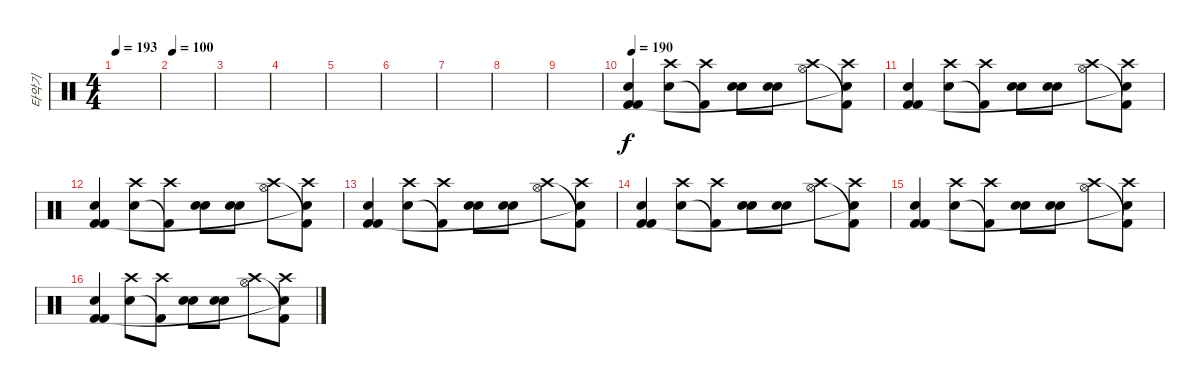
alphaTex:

\track ("타악기" "타악기") {instrument percussion}
\staff {score}
\articulation defaults
\ts (4 4)
\tempo 193
\clef neutral
\ks c
|
\tempo 100
|
|
|
|
|
|
|
|
\tempo 190
("Kick (hit) 2" "Snare (hit) 2" "Kick (hit) 2").4{volume 12} ("Crash high (hit)" "Snare (hit) 2").8 ("Crash high (hit)" "Kick (hit) 2"{t}).8 ("Snare (hit) 2" "Electric Snare (hit)").8 ("Snare (hit) 2" "Snare (hit) 2").8 ("Crash high (hit)" "Hi-Hat (open)").8 ("Crash high (hit)" "Kick (hit) 2"{t} "Snare (hit)"{t}).8 |
("Kick (hit) 2" "Snare (hit) 2" "Kick (hit) 2").4 ("Crash high (hit)" "Snare (hit) 2").8 ("Crash high (hit)" "Kick (hit) 2"{t}).8 ("Snare (hit) 2" "Electric Snare (hit)").8 ("Snare (hit) 2" "Snare (hit) 2").8 ("Crash high (hit)" "Hi-Hat (open)").8 ("Crash high (hit)" "Kick (hit) 2"{t} "Snare (hit)"{t}).8 |
("Kick (hit) 2" "Snare (hit) 2" "Kick (hit) 2").4 ("Crash high (hit)" "Snare (hit) 2").8 ("Crash high (hit)" "Kick (hit) 2"{t}).8 ("Snare (hit) 2" "Electric Snare (hit)").8 ("Snare (hit) 2" "Snare (hit) 2").8 ("Crash high (hit)" "Hi-Hat (open)").8 ("Crash high (hit)" "Kick (hit) 2"{t} "Snare (hit)"{t}).8 |
("Kick (hit) 2" "Snare (hit) 2" "Kick (hit) 2").4 ("Crash high (hit)" "Snare (hit) 2").8 ("Crash high (hit)" "Kick (hit) 2"{t}).8 ("Snare (hit) 2" "Electric Snare (hit)").8 ("Snare (hit) 2" "Snare (hit) 2").8 ("Crash high (hit)" "Hi-Hat (open)").8 ("Crash high (hit)" "Kick (hit) 2"{t} "Snare (hit)"{t}).8 |
("Kick (hit) 2" "Snare (hit) 2" "Kick (hit) 2").4 ("Crash high (hit)" "Snare (hit) 2").8 ("Crash high (hit)" "Kick (hit) 2"{t}).8 ("Snare (hit) 2" "Electric Snare (hit)").8 ("Snare (hit) 2" "Snare (hit) 2").8 ("Crash high (hit)" "Hi-Hat (open)").8 ("Crash high (hit)" "Kick (hit) 2"{t} "Snare (hit)"{t}).8 |
("Kick (hit) 2" "Snare (hit) 2" "Kick (hit) 2").4 ("Crash high (hit)" "Snare (hit) 2").8 ("Crash high (hit)" "Kick (hit) 2"{t}).8 ("Snare (hit) 2" "Electric Snare (hit)").8 ("Snare (hit) 2" "Snare (hit) 2").8 ("Crash high (hit)" "Hi-Hat (open)").8 ("Crash high (hit)" "Kick (hit) 2"{t} "Snare (hit)"{t}).8 |
("Kick (hit) 2" "Snare (hit) 2" "Kick (hit) 2").4 ("Crash high (hit)" "Snare (hit) 2").8 ("Crash high (hit)" "Kick (hit) 2"{t}).8 ("Snare (hit) 2" "Electric Snare (hit)").8 ("Snare (hit) 2" "Snare (hit) 2").8 ("Crash high (hit)" "Hi-Hat (open)").8 ("Crash high (hit)" "Kick (hit) 2"{t} "Snare (hit)"{t}).8
